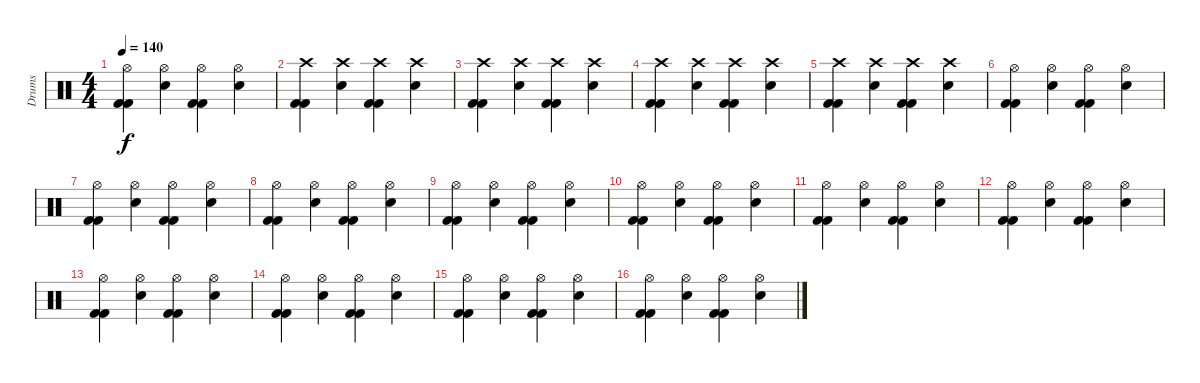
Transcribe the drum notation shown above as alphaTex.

\track ("Drums" "Drums") {instrument percussion}
\staff {score}
\articulation defaults
\ts (4 4)
\tempo 140
\clef neutral
\ks c
("Hi-Hat (open)" "Kick (hit) 2" "Kick (hit) 2").4{dy f} ("Hi-Hat (open)" "Electric Snare (hit)").4 ("Hi-Hat (open)" "Kick (hit) 2" "Kick (hit) 2").4 ("Hi-Hat (open)" "Electric Snare (hit)").4 |
("Crash high (hit)" "Kick (hit) 2" "Kick (hit) 2").4 ("Crash high (hit)" "Electric Snare (hit)").4 ("Crash high (hit)" "Kick (hit) 2" "Kick (hit) 2").4 ("Crash high (hit)" "Electric Snare (hit)").4 |
("Crash high (hit)" "Kick (hit) 2" "Kick (hit) 2").4 ("Crash high (hit)" "Electric Snare (hit)").4 ("Crash high (hit)" "Kick (hit) 2" "Kick (hit) 2").4 ("Crash high (hit)" "Electric Snare (hit)").4 |
("Crash high (hit)" "Kick (hit) 2" "Kick (hit) 2").4 ("Crash high (hit)" "Electric Snare (hit)").4 ("Crash high (hit)" "Kick (hit) 2" "Kick (hit) 2").4 ("Crash high (hit)" "Electric Snare (hit)").4 |
("Crash high (hit)" "Kick (hit) 2" "Kick (hit) 2").4 ("Crash high (hit)" "Electric Snare (hit)").4 ("Crash high (hit)" "Kick (hit) 2" "Kick (hit) 2").4 ("Crash high (hit)" "Electric Snare (hit)").4 |
("Hi-Hat (open)" "Kick (hit) 2" "Kick (hit) 2").4 ("Hi-Hat (open)" "Electric Snare (hit)").4 ("Hi-Hat (open)" "Kick (hit) 2" "Kick (hit) 2").4 ("Hi-Hat (open)" "Electric Snare (hit)").4 |
("Hi-Hat (open)" "Kick (hit) 2" "Kick (hit) 2").4 ("Hi-Hat (open)" "Electric Snare (hit)").4 ("Hi-Hat (open)" "Kick (hit) 2" "Kick (hit) 2").4 ("Hi-Hat (open)" "Electric Snare (hit)").4 |
("Hi-Hat (open)" "Kick (hit) 2" "Kick (hit) 2").4 ("Hi-Hat (open)" "Electric Snare (hit)").4 ("Hi-Hat (open)" "Kick (hit) 2" "Kick (hit) 2").4 ("Hi-Hat (open)" "Electric Snare (hit)").4 |
("Hi-Hat (open)" "Kick (hit) 2" "Kick (hit) 2").4 ("Hi-Hat (open)" "Electric Snare (hit)").4 ("Hi-Hat (open)" "Kick (hit) 2" "Kick (hit) 2").4 ("Hi-Hat (open)" "Electric Snare (hit)").4 |
("Hi-Hat (open)" "Kick (hit) 2" "Kick (hit) 2").4 ("Hi-Hat (open)" "Electric Snare (hit)").4 ("Hi-Hat (open)" "Kick (hit) 2" "Kick (hit) 2").4 ("Hi-Hat (open)" "Electric Snare (hit)").4 |
("Hi-Hat (open)" "Kick (hit) 2" "Kick (hit) 2").4 ("Hi-Hat (open)" "Electric Snare (hit)").4 ("Hi-Hat (open)" "Kick (hit) 2" "Kick (hit) 2").4 ("Hi-Hat (open)" "Electric Snare (hit)").4 |
("Hi-Hat (open)" "Kick (hit) 2" "Kick (hit) 2").4 ("Hi-Hat (open)" "Electric Snare (hit)").4 ("Hi-Hat (open)" "Kick (hit) 2" "Kick (hit) 2").4 ("Hi-Hat (open)" "Electric Snare (hit)").4 |
("Hi-Hat (open)" "Kick (hit) 2" "Kick (hit) 2").4 ("Hi-Hat (open)" "Electric Snare (hit)").4 ("Hi-Hat (open)" "Kick (hit) 2" "Kick (hit) 2").4 ("Hi-Hat (open)" "Electric Snare (hit)").4 |
("Hi-Hat (open)" "Kick (hit) 2" "Kick (hit) 2").4 ("Hi-Hat (open)" "Electric Snare (hit)").4 ("Hi-Hat (open)" "Kick (hit) 2" "Kick (hit) 2").4 ("Hi-Hat (open)" "Electric Snare (hit)").4 |
("Hi-Hat (open)" "Kick (hit) 2" "Kick (hit) 2").4 ("Hi-Hat (open)" "Electric Snare (hit)").4 ("Hi-Hat (open)" "Kick (hit) 2" "Kick (hit) 2").4 ("Hi-Hat (open)" "Electric Snare (hit)").4 |
("Hi-Hat (open)" "Kick (hit) 2" "Kick (hit) 2").4 ("Hi-Hat (open)" "Electric Snare (hit)").4 ("Hi-Hat (open)" "Kick (hit) 2" "Kick (hit) 2").4 ("Hi-Hat (open)" "Electric Snare (hit)").4
